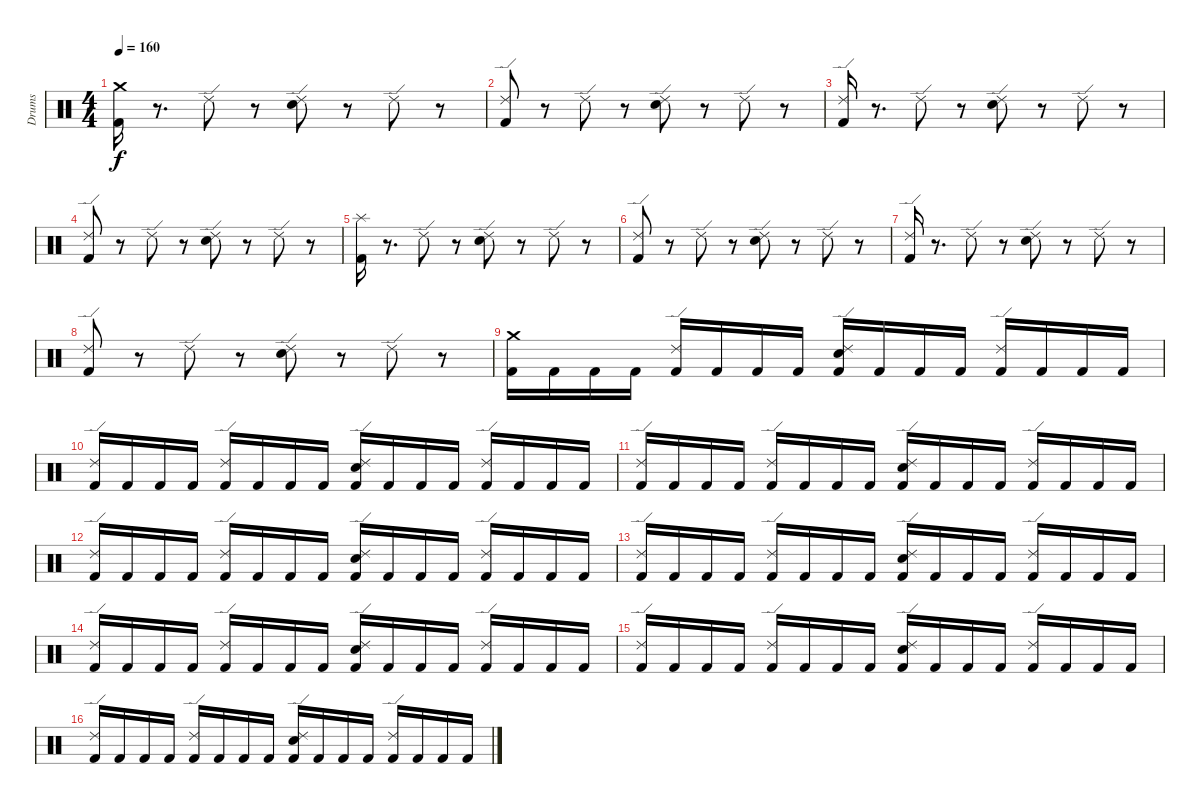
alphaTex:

\track ("Drums" "Drums") {instrument percussion}
\staff {score}
\articulation defaults
\ts (4 4)
\tempo 160
\clef neutral
\ks c
("Crash medium (hit)" "Kick (hit) 2").16{dy f} r.8{d} "Ride (edge) 2".8 r.8 ("Ride (edge) 2" "Electric Snare (hit)").8 r.8 "Ride (edge) 2".8 r.8 |
("Ride (edge) 2" "Kick (hit) 2").8 r.8 "Ride (edge) 2".8 r.8 ("Ride (edge) 2" "Electric Snare (hit)").8 r.8 "Ride (edge) 2".8 r.8 |
("Ride (edge) 2" "Kick (hit) 2").16 r.8{d} "Ride (edge) 2".8 r.8 ("Ride (edge) 2" "Electric Snare (hit)").8 r.8 "Ride (edge) 2".8 r.8 |
("Ride (edge) 2" "Kick (hit) 2").8 r.8 "Ride (edge) 2".8 r.8 ("Ride (edge) 2" "Electric Snare (hit)").8 r.8 "Ride (edge) 2".8 r.8 |
("Splash (hit)" "Kick (hit) 2").16 r.8{d} "Ride (edge) 2".8 r.8 ("Ride (edge) 2" "Electric Snare (hit)").8 r.8 "Ride (edge) 2".8 r.8 |
("Ride (edge) 2" "Kick (hit) 2").8 r.8 "Ride (edge) 2".8 r.8 ("Ride (edge) 2" "Electric Snare (hit)").8 r.8 "Ride (edge) 2".8 r.8 |
("Ride (edge) 2" "Kick (hit) 2").16 r.8{d} "Ride (edge) 2".8 r.8 ("Ride (edge) 2" "Electric Snare (hit)").8 r.8 "Ride (edge) 2".8 r.8 |
("Ride (edge) 2" "Kick (hit) 2").8 r.8 "Ride (edge) 2".8 r.8 ("Ride (edge) 2" "Electric Snare (hit)").8 r.8 "Ride (edge) 2".8 r.8 |
("Crash medium (hit)" "Kick (hit) 2").16 "Kick (hit) 2".16 "Kick (hit) 2".16 "Kick (hit) 2".16 ("Ride (edge) 2" "Kick (hit) 2").16 "Kick (hit) 2".16 "Kick (hit) 2".16 "Kick (hit) 2".16 ("Ride (edge) 2" "Electric Snare (hit)" "Kick (hit) 2").16 "Kick (hit) 2".16 "Kick (hit) 2".16 "Kick (hit) 2".16 ("Ride (edge) 2" "Kick (hit) 2").16 "Kick (hit) 2".16 "Kick (hit) 2".16 "Kick (hit) 2".16 |
("Kick (hit) 2" "Ride (edge) 2").16 "Kick (hit) 2".16 "Kick (hit) 2".16 "Kick (hit) 2".16 ("Kick (hit) 2" "Ride (edge) 2").16 "Kick (hit) 2".16 "Kick (hit) 2".16 "Kick (hit) 2".16 ("Electric Snare (hit)" "Kick (hit) 2" "Ride (edge) 2").16 "Kick (hit) 2".16 "Kick (hit) 2".16 "Kick (hit) 2".16 ("Kick (hit) 2" "Ride (edge) 2").16 "Kick (hit) 2".16 "Kick (hit) 2".16 "Kick (hit) 2".16 |
("Ride (edge) 2" "Kick (hit) 2").16 "Kick (hit) 2".16 "Kick (hit) 2".16 "Kick (hit) 2".16 ("Ride (edge) 2" "Kick (hit) 2").16 "Kick (hit) 2".16 "Kick (hit) 2".16 "Kick (hit) 2".16 ("Ride (edge) 2" "Electric Snare (hit)" "Kick (hit) 2").16 "Kick (hit) 2".16 "Kick (hit) 2".16 "Kick (hit) 2".16 ("Ride (edge) 2" "Kick (hit) 2").16 "Kick (hit) 2".16 "Kick (hit) 2".16 "Kick (hit) 2".16 |
("Kick (hit) 2" "Ride (edge) 2").16 "Kick (hit) 2".16 "Kick (hit) 2".16 "Kick (hit) 2".16 ("Kick (hit) 2" "Ride (edge) 2").16 "Kick (hit) 2".16 "Kick (hit) 2".16 "Kick (hit) 2".16 ("Electric Snare (hit)" "Kick (hit) 2" "Ride (edge) 2").16 "Kick (hit) 2".16 "Kick (hit) 2".16 "Kick (hit) 2".16 ("Kick (hit) 2" "Ride (edge) 2").16 "Kick (hit) 2".16 "Kick (hit) 2".16 "Kick (hit) 2".16 |
("Ride (edge) 2" "Kick (hit) 2").16 "Kick (hit) 2".16 "Kick (hit) 2".16 "Kick (hit) 2".16 ("Ride (edge) 2" "Kick (hit) 2").16 "Kick (hit) 2".16 "Kick (hit) 2".16 "Kick (hit) 2".16 ("Ride (edge) 2" "Electric Snare (hit)" "Kick (hit) 2").16 "Kick (hit) 2".16 "Kick (hit) 2".16 "Kick (hit) 2".16 ("Ride (edge) 2" "Kick (hit) 2").16 "Kick (hit) 2".16 "Kick (hit) 2".16 "Kick (hit) 2".16 |
("Kick (hit) 2" "Ride (edge) 2").16 "Kick (hit) 2".16 "Kick (hit) 2".16 "Kick (hit) 2".16 ("Kick (hit) 2" "Ride (edge) 2").16 "Kick (hit) 2".16 "Kick (hit) 2".16 "Kick (hit) 2".16 ("Electric Snare (hit)" "Kick (hit) 2" "Ride (edge) 2").16 "Kick (hit) 2".16 "Kick (hit) 2".16 "Kick (hit) 2".16 ("Kick (hit) 2" "Ride (edge) 2").16 "Kick (hit) 2".16 "Kick (hit) 2".16 "Kick (hit) 2".16 |
("Ride (edge) 2" "Kick (hit) 2").16 "Kick (hit) 2".16 "Kick (hit) 2".16 "Kick (hit) 2".16 ("Ride (edge) 2" "Kick (hit) 2").16 "Kick (hit) 2".16 "Kick (hit) 2".16 "Kick (hit) 2".16 ("Ride (edge) 2" "Electric Snare (hit)" "Kick (hit) 2").16 "Kick (hit) 2".16 "Kick (hit) 2".16 "Kick (hit) 2".16 ("Ride (edge) 2" "Kick (hit) 2").16 "Kick (hit) 2".16 "Kick (hit) 2".16 "Kick (hit) 2".16 |
("Kick (hit) 2" "Ride (edge) 2").16 "Kick (hit) 2".16 "Kick (hit) 2".16 "Kick (hit) 2".16 ("Kick (hit) 2" "Ride (edge) 2").16 "Kick (hit) 2".16 "Kick (hit) 2".16 "Kick (hit) 2".16 ("Electric Snare (hit)" "Kick (hit) 2" "Ride (edge) 2").16 "Kick (hit) 2".16 "Kick (hit) 2".16 "Kick (hit) 2".16 ("Kick (hit) 2" "Ride (edge) 2").16 "Kick (hit) 2".16 "Kick (hit) 2".16 "Kick (hit) 2".16
